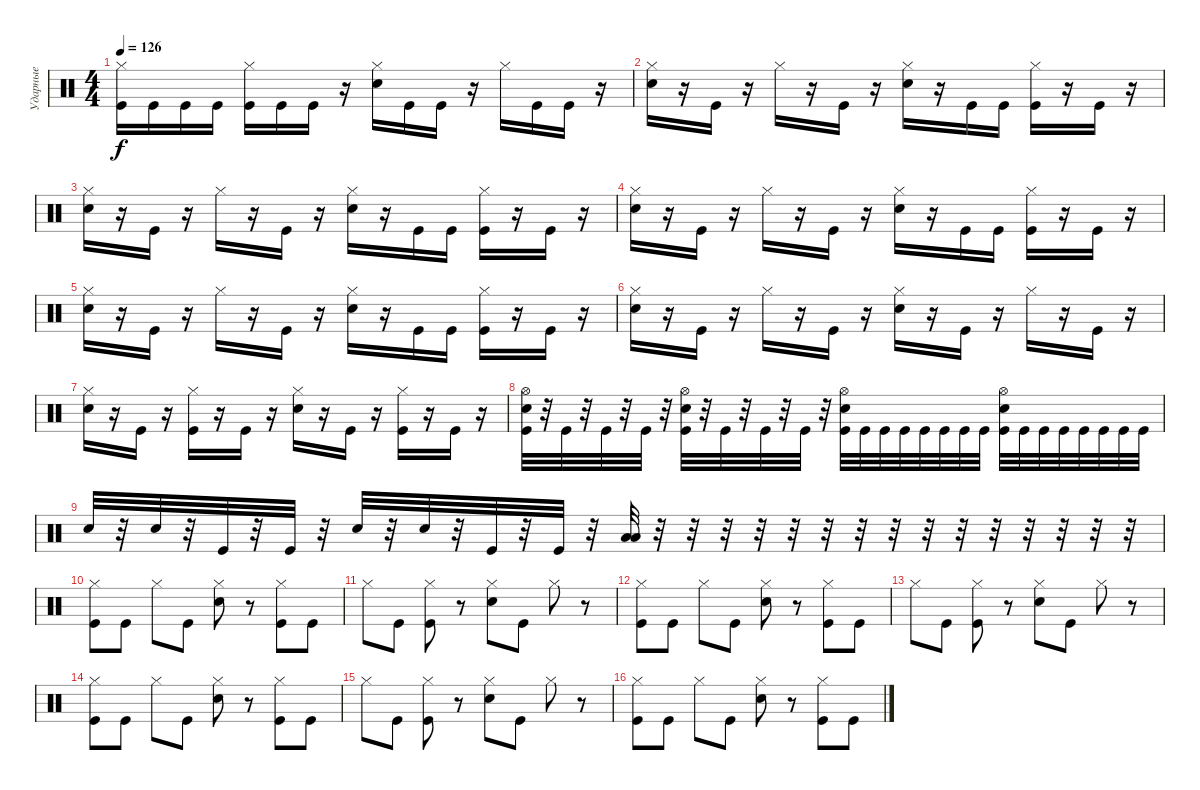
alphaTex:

\track ("Ударные" "Ударные") {instrument percussion}
\staff {score}
\articulation defaults
\ts (4 4)
\tempo 126
\clef neutral
\ks c
("Hi-Hat (closed)" "Kick (hit)").16{dy f} "Kick (hit)".16 "Kick (hit)".16 "Kick (hit)".16 ("Hi-Hat (closed)" "Kick (hit)").16 "Kick (hit)".16 "Kick (hit)".16 r.16 ("Hi-Hat (closed)" "Electric Snare (hit)").16 "Kick (hit)".16 "Kick (hit)".16 r.16 "Hi-Hat (closed)".16 "Kick (hit)".16 "Kick (hit)".16 r.16 |
("Hi-Hat (closed)" "Electric Snare (hit)").16 r.16 "Kick (hit)".16 r.16 "Hi-Hat (closed)".16 r.16 "Kick (hit)".16 r.16 ("Hi-Hat (closed)" "Electric Snare (hit)").16 r.16 "Kick (hit)".16 "Kick (hit)".16 ("Hi-Hat (closed)" "Kick (hit)").16 r.16 "Kick (hit)".16 r.16 |
("Hi-Hat (closed)" "Electric Snare (hit)").16 r.16 "Kick (hit)".16 r.16 "Hi-Hat (closed)".16 r.16 "Kick (hit)".16 r.16 ("Hi-Hat (closed)" "Electric Snare (hit)").16 r.16 "Kick (hit)".16 "Kick (hit)".16 ("Hi-Hat (closed)" "Kick (hit)").16 r.16 "Kick (hit)".16 r.16 |
("Hi-Hat (closed)" "Electric Snare (hit)").16 r.16 "Kick (hit)".16 r.16 "Hi-Hat (closed)".16 r.16 "Kick (hit)".16 r.16 ("Hi-Hat (closed)" "Electric Snare (hit)").16 r.16 "Kick (hit)".16 "Kick (hit)".16 ("Hi-Hat (closed)" "Kick (hit)").16 r.16 "Kick (hit)".16 r.16 |
("Hi-Hat (closed)" "Electric Snare (hit)").16 r.16 "Kick (hit)".16 r.16 "Hi-Hat (closed)".16 r.16 "Kick (hit)".16 r.16 ("Hi-Hat (closed)" "Electric Snare (hit)").16 r.16 "Kick (hit)".16 "Kick (hit)".16 ("Hi-Hat (closed)" "Kick (hit)").16 r.16 "Kick (hit)".16 r.16 |
("Hi-Hat (closed)" "Electric Snare (hit)").16 r.16 "Kick (hit)".16 r.16 "Hi-Hat (closed)".16 r.16 "Kick (hit)".16 r.16 ("Hi-Hat (closed)" "Electric Snare (hit)").16 r.16 "Kick (hit)".16 r.16 "Hi-Hat (closed)".16 r.16 "Kick (hit)".16 r.16 |
("Hi-Hat (closed)" "Electric Snare (hit)").16 r.16 "Kick (hit)".16 r.16 ("Hi-Hat (closed)" "Kick (hit)").16 r.16 "Kick (hit)".16 r.16 ("Hi-Hat (closed)" "Electric Snare (hit)").16 r.16 "Kick (hit)".16 r.16 ("Hi-Hat (closed)" "Kick (hit)").16 r.16 "Kick (hit)".16 r.16 |
("Kick (hit)" "Electric Snare (hit)" "Hi-Hat (open)").32 r.32 "Kick (hit)".32 r.32 "Kick (hit)".32 r.32 "Kick (hit)".32 r.32 ("Kick (hit)" "Electric Snare (hit)" "Hi-Hat (open)").32 r.32 "Kick (hit)".32 r.32 "Kick (hit)".32 r.32 "Kick (hit)".32 r.32 ("Kick (hit)" "Electric Snare (hit)" "Hi-Hat (open)").32 "Kick (hit)".32 "Kick (hit)".32 "Kick (hit)".32 "Kick (hit)".32 "Kick (hit)".32 "Kick (hit)".32 "Kick (hit)".32 ("Kick (hit)" "Electric Snare (hit)" "Hi-Hat (open)").32 "Kick (hit)".32 "Kick (hit)".32 "Kick (hit)".32 "Kick (hit)".32 "Kick (hit)".32 "Kick (hit)".32 "Kick (hit)".32 |
"Electric Snare (hit)".32 r.32 "Electric Snare (hit)".32 r.32 "Kick (hit)".32 r.32 "Kick (hit)".32 r.32 "Electric Snare (hit)".32 r.32 "Electric Snare (hit)".32 r.32 "Kick (hit)".32 r.32 "Kick (hit)".32 r.32 ("Low Floor Tom (hit)" "Low Tom (hit)").32 r.32 r.32 r.32 r.32 r.32 r.32 r.32 r.32 r.32 r.32 r.32 r.32 r.32 r.32 r.32 |
("Hi-Hat (closed)" "Kick (hit)").8 "Kick (hit)".8 "Hi-Hat (closed)".8 "Kick (hit)".8 ("Hi-Hat (closed)" "Electric Snare (hit)").8 r.8 ("Hi-Hat (closed)" "Kick (hit)").8 "Kick (hit)".8 |
"Hi-Hat (closed)".8 "Kick (hit)".8 ("Hi-Hat (closed)" "Kick (hit)").8 r.8 ("Hi-Hat (closed)" "Electric Snare (hit)").8 "Kick (hit)".8 "Hi-Hat (closed)".8 r.8 |
("Hi-Hat (closed)" "Kick (hit)").8 "Kick (hit)".8 "Hi-Hat (closed)".8 "Kick (hit)".8 ("Hi-Hat (closed)" "Electric Snare (hit)").8 r.8 ("Hi-Hat (closed)" "Kick (hit)").8 "Kick (hit)".8 |
"Hi-Hat (closed)".8 "Kick (hit)".8 ("Hi-Hat (closed)" "Kick (hit)").8 r.8 ("Hi-Hat (closed)" "Electric Snare (hit)").8 "Kick (hit)".8 "Hi-Hat (closed)".8 r.8 |
("Hi-Hat (closed)" "Kick (hit)").8 "Kick (hit)".8 "Hi-Hat (closed)".8 "Kick (hit)".8 ("Hi-Hat (closed)" "Electric Snare (hit)").8 r.8 ("Hi-Hat (closed)" "Kick (hit)").8 "Kick (hit)".8 |
"Hi-Hat (closed)".8 "Kick (hit)".8 ("Hi-Hat (closed)" "Kick (hit)").8 r.8 ("Hi-Hat (closed)" "Electric Snare (hit)").8 "Kick (hit)".8 "Hi-Hat (closed)".8 r.8 |
("Hi-Hat (closed)" "Kick (hit)").8 "Kick (hit)".8 "Hi-Hat (closed)".8 "Kick (hit)".8 ("Hi-Hat (closed)" "Electric Snare (hit)").8 r.8 ("Hi-Hat (closed)" "Kick (hit)").8 "Kick (hit)".8
